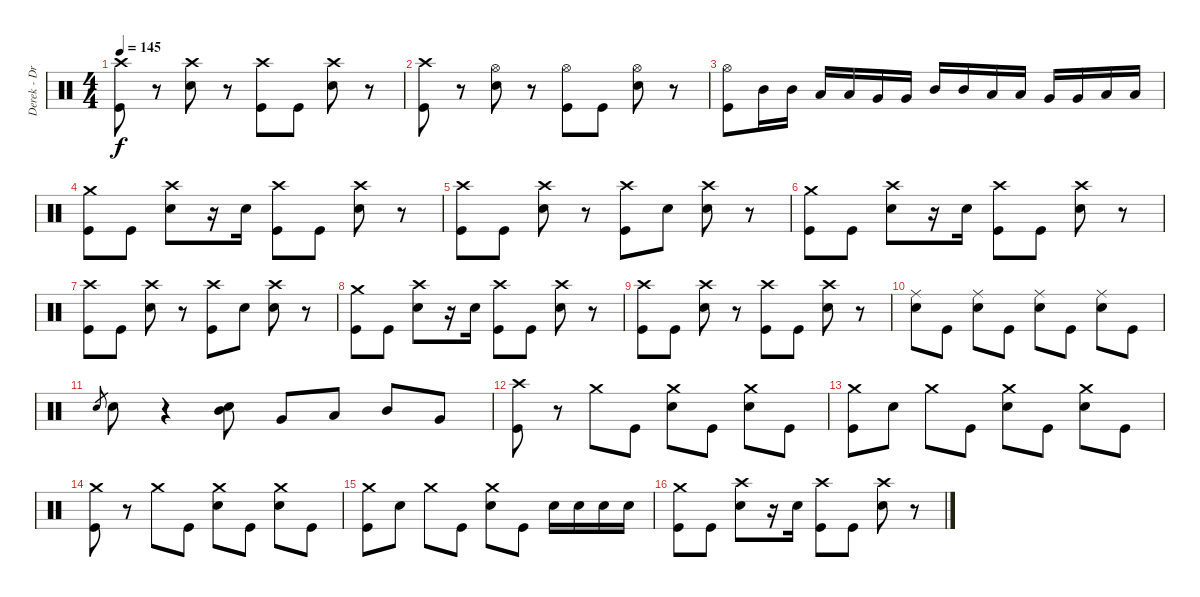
\track ("Derek - Drums" "Derek - Dr") {instrument percussion}
\staff {score}
\articulation defaults
\ts (4 4)
\tempo 145
\clef neutral
\ks c
("Crash high (hit)" "Kick (hit)").8{dy f} r.8 ("Crash high (hit)" "Electric Snare (hit)").8 r.8 ("Crash high (hit)" "Kick (hit)").8 "Kick (hit)".8 ("Crash high (hit)" "Electric Snare (hit)").8 r.8 |
("Crash high (hit)" "Kick (hit)").8 r.8 ("Hi-Hat (open)" "Electric Snare (hit)").8 r.8 ("Hi-Hat (open)" "Kick (hit)").8 "Kick (hit)".8 ("Hi-Hat (open)" "Electric Snare (hit)").8 r.8 |
("Hi-Hat (open)" "Kick (hit)").8 "Mid Tom (hit)".16 "Mid Tom (hit)".16 "Low Tom (hit)".16 "Low Tom (hit)".16 "Very Low Tom (hit)".16 "Very Low Tom (hit)".16 "Mid Tom (hit)".16 "Mid Tom (hit)".16 "Low Tom (hit)".16 "Low Tom (hit)".16 "Very Low Tom (hit)".16 "Very Low Tom (hit)".16 "Low Floor Tom (hit)".16 "Low Floor Tom (hit)".16 |
("Crash medium (hit)" "Kick (hit)").8 "Kick (hit)".8 ("Crash high (hit)" "Electric Snare (hit)").8 r.16 "Electric Snare (hit)".16 ("Crash high (hit)" "Kick (hit)").8 "Kick (hit)".8 ("Crash high (hit)" "Electric Snare (hit)").8 r.8 |
("Crash high (hit)" "Kick (hit)").8 "Kick (hit)".8 ("Crash high (hit)" "Electric Snare (hit)").8 r.8 ("Crash high (hit)" "Kick (hit)").8 "Electric Snare (hit)".8 ("Crash high (hit)" "Electric Snare (hit)").8 r.8 |
("Crash medium (hit)" "Kick (hit)").8 "Kick (hit)".8 ("Crash high (hit)" "Electric Snare (hit)").8 r.16 "Electric Snare (hit)".16 ("Crash high (hit)" "Kick (hit)").8 "Kick (hit)".8 ("Crash high (hit)" "Electric Snare (hit)").8 r.8 |
("Crash high (hit)" "Kick (hit)").8 "Kick (hit)".8 ("Crash high (hit)" "Electric Snare (hit)").8 r.8 ("Crash high (hit)" "Kick (hit)").8 "Electric Snare (hit)".8 ("Crash high (hit)" "Electric Snare (hit)").8 r.8 |
("Crash medium (hit)" "Kick (hit)").8 "Kick (hit)".8 ("Crash high (hit)" "Electric Snare (hit)").8 r.16 "Electric Snare (hit)".16 ("Crash high (hit)" "Kick (hit)").8 "Kick (hit)".8 ("Crash high (hit)" "Electric Snare (hit)").8 r.8 |
("Crash high (hit)" "Kick (hit)").8 "Kick (hit)".8 ("Crash high (hit)" "Electric Snare (hit)").8 r.8 ("Crash high (hit)" "Kick (hit)").8 "Kick (hit)".8 ("Crash high (hit)" "Electric Snare (hit)").8 r.8 |
("Ride (middle)" "Electric Snare (hit)").8 "Kick (hit)".8 ("Ride (middle)" "Electric Snare (hit)").8 "Kick (hit)".8 ("Ride (middle)" "Electric Snare (hit)").8 "Kick (hit)".8 ("Ride (middle)" "Electric Snare (hit)").8 "Kick (hit)".8 |
"Electric Snare (hit)".8{gr} "Electric Snare (hit)".8 r.4 ("Mid Tom (hit)" "Electric Snare (hit)").8 "Very Low Tom (hit)".8 "Low Floor Tom (hit)".8 "Mid Tom (hit)".8 "Very Low Tom (hit)".8 |
("Crash high (hit)" "Kick (hit)").8 r.8 "Crash medium (hit)".8 "Kick (hit)".8 ("Crash medium (hit)" "Electric Snare (hit)").8 "Kick (hit)".8 ("Crash medium (hit)" "Electric Snare (hit)").8 "Kick (hit)".8 |
("Crash medium (hit)" "Kick (hit)").8 "Electric Snare (hit)".8 "Crash medium (hit)".8 "Kick (hit)".8 ("Crash medium (hit)" "Electric Snare (hit)").8 "Kick (hit)".8 ("Crash medium (hit)" "Electric Snare (hit)").8 "Kick (hit)".8 |
("Crash medium (hit)" "Kick (hit)").8 r.8 "Crash medium (hit)".8 "Kick (hit)".8 ("Crash medium (hit)" "Electric Snare (hit)").8 "Kick (hit)".8 ("Crash medium (hit)" "Electric Snare (hit)").8 "Kick (hit)".8 |
("Crash medium (hit)" "Kick (hit)").8 "Electric Snare (hit)".8 "Crash medium (hit)".8 "Kick (hit)".8 ("Crash medium (hit)" "Electric Snare (hit)").8 "Kick (hit)".8 "Electric Snare (hit)".16 "Electric Snare (hit)".16 "Electric Snare (hit)".16 "Electric Snare (hit)".16 |
("Crash medium (hit)" "Kick (hit)").8 "Kick (hit)".8 ("Crash high (hit)" "Electric Snare (hit)").8 r.16 "Electric Snare (hit)".16 ("Crash high (hit)" "Kick (hit)").8 "Kick (hit)".8 ("Crash high (hit)" "Electric Snare (hit)").8 r.8
